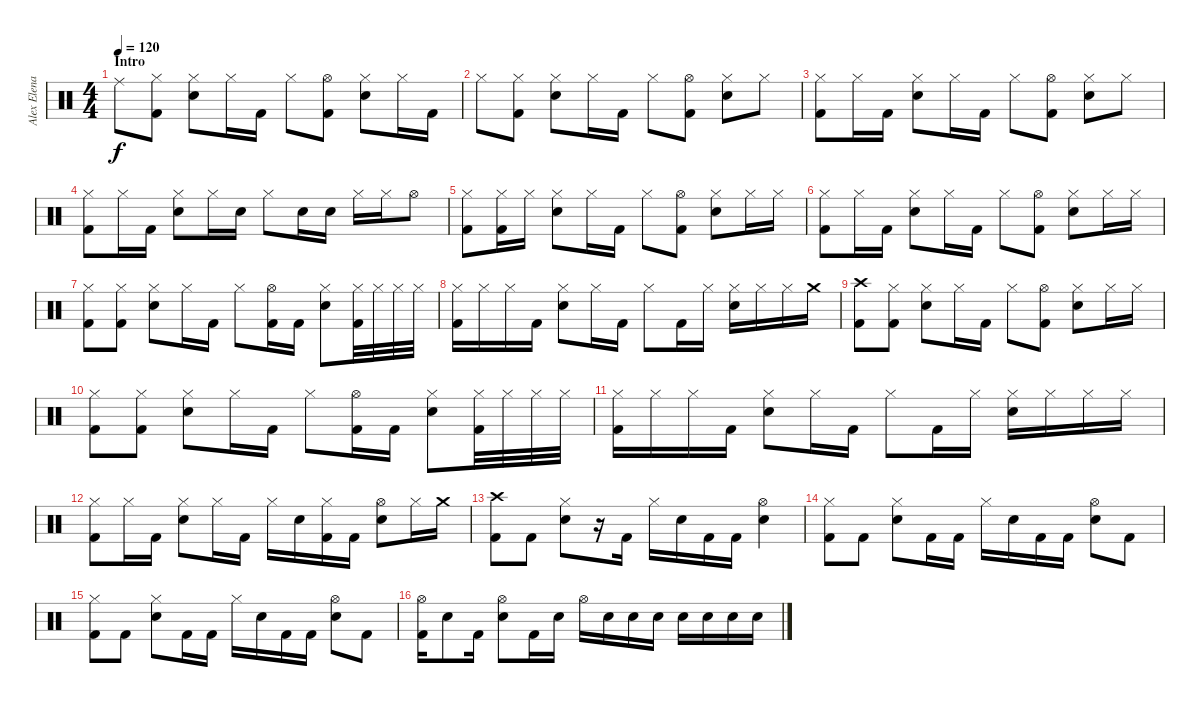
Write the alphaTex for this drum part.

\track ("Alex Elena (Percussion)" "Alex Elena") {instrument percussion}
\staff {score}
\articulation defaults
\ts (4 4)
\section ("" "Intro")
\tempo 120
\clef neutral
\ks c "Ride (middle)".8{dy f}
("Hi-Hat (closed)" "Kick (hit) 2").8 ("Hi-Hat (closed)" "Snare (hit) 2").8 "Hi-Hat (closed)".16 "Kick (hit) 2".16 "Hi-Hat (closed)".8 ("Hi-Hat (open)" "Kick (hit) 2").8 ("Hi-Hat (closed)" "Snare (hit) 2").8 "Hi-Hat (closed)".16 "Kick (hit) 2".16 |
"Hi-Hat (closed)".8 ("Hi-Hat (closed)" "Kick (hit) 2").8 ("Hi-Hat (closed)" "Snare (hit) 2").8 "Hi-Hat (closed)".16 "Kick (hit) 2".16 "Hi-Hat (closed)".8 ("Hi-Hat (open)" "Kick (hit) 2").8 ("Hi-Hat (closed)" "Snare (hit) 2").8 "Hi-Hat (closed)".8 |
("Hi-Hat (closed)" "Kick (hit) 2").8 "Hi-Hat (closed)".16 "Kick (hit) 2".16 ("Hi-Hat (closed)" "Snare (hit) 2").8 "Hi-Hat (closed)".16 "Kick (hit) 2".16 "Hi-Hat (closed)".8 ("Hi-Hat (open)" "Kick (hit) 2").8 ("Hi-Hat (closed)" "Snare (hit) 2").8 "Hi-Hat (closed)".8 |
("Hi-Hat (closed)" "Kick (hit) 2").8 "Hi-Hat (closed)".16 "Kick (hit) 2".16 ("Hi-Hat (closed)" "Snare (hit) 2").8 "Hi-Hat (closed)".16 "Snare (hit) 2".16 "Hi-Hat (closed)".8 "Snare (hit) 2".16 "Snare (hit) 2".16 "Hi-Hat (closed)".16 "Hi-Hat (closed)".16 "Hi-Hat (open)".8 |
("Hi-Hat (closed)" "Kick (hit) 2").8 ("Hi-Hat (closed)" "Kick (hit) 2").16 "Hi-Hat (closed)".16 ("Hi-Hat (closed)" "Snare (hit) 2").8 "Hi-Hat (closed)".16 "Kick (hit) 2".16 "Hi-Hat (closed)".8 ("Hi-Hat (open)" "Kick (hit) 2").8 ("Hi-Hat (closed)" "Snare (hit) 2").8 "Hi-Hat (closed)".16 "Hi-Hat (closed)".16 |
("Hi-Hat (closed)" "Kick (hit) 2").8 "Hi-Hat (closed)".16 "Kick (hit) 2".16 ("Hi-Hat (closed)" "Snare (hit) 2").8 "Hi-Hat (closed)".16 "Kick (hit) 2".16 "Hi-Hat (closed)".8 ("Hi-Hat (open)" "Kick (hit) 2").8 ("Hi-Hat (closed)" "Snare (hit) 2").8 "Hi-Hat (closed)".16 "Hi-Hat (closed)".16 |
("Hi-Hat (closed)" "Kick (hit) 2").8 ("Hi-Hat (closed)" "Kick (hit) 2").8 ("Hi-Hat (closed)" "Snare (hit) 2").8 "Hi-Hat (closed)".16 "Kick (hit) 2".16 "Hi-Hat (closed)".8 ("Hi-Hat (open)" "Kick (hit) 2").16 "Kick (hit) 2".16 ("Hi-Hat (closed)" "Snare (hit) 2").8 ("Hi-Hat (closed)" "Kick (hit) 2").32 "Hi-Hat (closed)".32 "Hi-Hat (closed)".32 "Hi-Hat (closed)".32 |
("Hi-Hat (closed)" "Kick (hit) 2").16 "Hi-Hat (closed)".16 "Hi-Hat (closed)".16 "Kick (hit) 2".16 ("Hi-Hat (closed)" "Snare (hit) 2").8 "Hi-Hat (closed)".16 "Kick (hit) 2".16 "Hi-Hat (closed)".8 "Kick (hit) 2".16 "Hi-Hat (closed)".16 ("Hi-Hat (closed)" "Snare (hit) 2").16 "Hi-Hat (closed)".16 "Hi-Hat (closed)".16 "Crash medium (hit)".16 |
("Crash high (hit)" "Kick (hit) 2").8 ("Hi-Hat (closed)" "Kick (hit) 2").8 ("Hi-Hat (closed)" "Snare (hit) 2").8 "Hi-Hat (closed)".16 "Kick (hit) 2".16 "Hi-Hat (closed)".8 ("Hi-Hat (open)" "Kick (hit) 2").8 ("Hi-Hat (closed)" "Snare (hit) 2").8 "Hi-Hat (closed)".16 "Hi-Hat (closed)".16 |
("Hi-Hat (closed)" "Kick (hit) 2").8 ("Hi-Hat (closed)" "Kick (hit) 2").8 ("Hi-Hat (closed)" "Snare (hit) 2").8 "Hi-Hat (closed)".16 "Kick (hit) 2".16 "Hi-Hat (closed)".8 ("Hi-Hat (open)" "Kick (hit) 2").16 "Kick (hit) 2".16 ("Hi-Hat (closed)" "Snare (hit) 2").8 ("Hi-Hat (closed)" "Kick (hit) 2").32 "Hi-Hat (closed)".32 "Hi-Hat (closed)".32 "Hi-Hat (closed)".32 |
("Hi-Hat (closed)" "Kick (hit) 2").16 "Hi-Hat (closed)".16 "Hi-Hat (closed)".16 "Kick (hit) 2".16 ("Hi-Hat (closed)" "Snare (hit) 2").8 "Hi-Hat (closed)".16 "Kick (hit) 2".16 "Hi-Hat (closed)".8 "Kick (hit) 2".16 "Hi-Hat (closed)".16 ("Hi-Hat (closed)" "Snare (hit) 2").16 "Hi-Hat (closed)".16 "Hi-Hat (closed)".16 "Hi-Hat (closed)".16 |
("Hi-Hat (closed)" "Kick (hit) 2").8 "Hi-Hat (closed)".16 "Kick (hit) 2".16 ("Hi-Hat (closed)" "Snare (hit) 2").8 "Hi-Hat (closed)".16 "Kick (hit) 2".16 "Hi-Hat (closed)".16 "Snare (hit) 2".16 ("Hi-Hat (closed)" "Kick (hit) 2").16 "Kick (hit) 2".16 ("Hi-Hat (open)" "Snare (hit) 2").8 "Hi-Hat (closed)".16 "Crash medium (hit)".16 |
("Crash high (hit)" "Kick (hit) 2").8 "Kick (hit) 2".8 ("Hi-Hat (closed)" "Snare (hit) 2").8 r.16 "Kick (hit) 2".16 "Hi-Hat (closed)".16 "Snare (hit) 2".16 "Kick (hit) 2".16 "Kick (hit) 2".16 ("Hi-Hat (open)" "Snare (hit) 2").4 |
("Hi-Hat (closed)" "Kick (hit) 2").8 "Kick (hit) 2".8 ("Hi-Hat (closed)" "Snare (hit) 2").8 "Kick (hit) 2".16 "Kick (hit) 2".16 "Hi-Hat (closed)".16 "Snare (hit) 2".16 "Kick (hit) 2".16 "Kick (hit) 2".16 ("Hi-Hat (open)" "Snare (hit) 2").8 "Kick (hit) 2".8 |
("Hi-Hat (closed)" "Kick (hit) 2").8 "Kick (hit) 2".8 ("Hi-Hat (closed)" "Snare (hit) 2").8 "Kick (hit) 2".16 "Kick (hit) 2".16 "Hi-Hat (closed)".16 "Snare (hit) 2".16 "Kick (hit) 2".16 "Kick (hit) 2".16 ("Hi-Hat (open)" "Snare (hit) 2").8 "Kick (hit) 2".8 |
("Hi-Hat (open)" "Kick (hit) 2").16 "Snare (hit) 2".8 "Kick (hit) 2".16 ("Hi-Hat (open)" "Snare (hit) 2").8 "Kick (hit) 2".16 "Snare (hit) 2".16 "Hi-Hat (open)".16 "Snare (hit) 2".16 "Snare (hit) 2".16 "Snare (hit) 2".16 "Snare (hit) 2".16 "Snare (hit) 2".16 "Snare (hit) 2".16 "Snare (hit) 2".16
